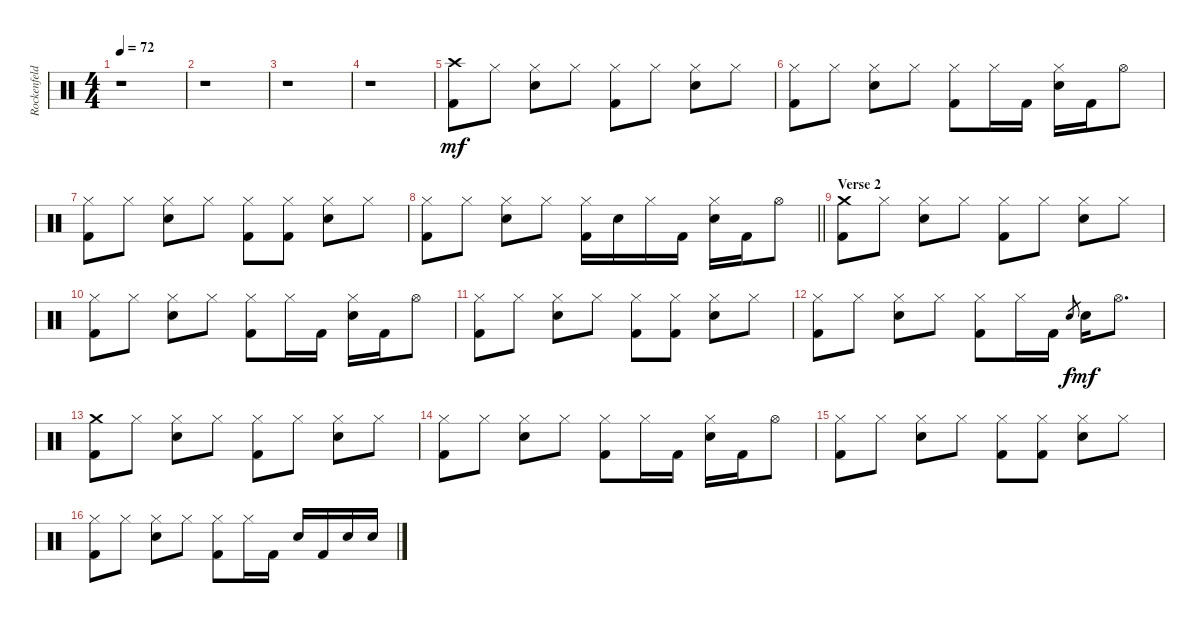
\track ("Rockenfeld" "Rockenfeld") {instrument percussion}
\staff {score}
\articulation defaults
\ts (4 4)
\tempo 72
\clef neutral
\ks c
r.1{dy mf} |
r.1 |
r.1 |
r.1 |
("Crash high (hit)" "Kick (hit) 2").8 "Hi-Hat (closed)".8 ("Hi-Hat (closed)" "Electric Snare (hit)").8 "Hi-Hat (closed)".8 ("Hi-Hat (closed)" "Kick (hit) 2").8 "Hi-Hat (closed)".8 ("Hi-Hat (closed)" "Electric Snare (hit)").8 "Hi-Hat (closed)".8 |
("Hi-Hat (closed)" "Kick (hit) 2").8 "Hi-Hat (closed)".8 ("Hi-Hat (closed)" "Electric Snare (hit)").8 "Hi-Hat (closed)".8 ("Hi-Hat (closed)" "Kick (hit) 2").8 "Hi-Hat (closed)".16 "Kick (hit) 2".16 ("Hi-Hat (closed)" "Electric Snare (hit)").16 "Kick (hit) 2".16 "Hi-Hat (open)".8 |
("Hi-Hat (closed)" "Kick (hit) 2").8 "Hi-Hat (closed)".8 ("Hi-Hat (closed)" "Electric Snare (hit)").8 "Hi-Hat (closed)".8 ("Hi-Hat (closed)" "Kick (hit) 2").8 ("Hi-Hat (closed)" "Kick (hit) 2").8 ("Hi-Hat (closed)" "Electric Snare (hit)").8 "Hi-Hat (closed)".8 |
\barLineRight lightlight
("Hi-Hat (closed)" "Kick (hit) 2").8 "Hi-Hat (closed)".8 ("Hi-Hat (closed)" "Electric Snare (hit)").8 "Hi-Hat (closed)".8 ("Hi-Hat (closed)" "Kick (hit) 2").16 "Electric Snare (hit)".16 "Hi-Hat (closed)".16 "Kick (hit) 2".16 ("Hi-Hat (closed)" "Electric Snare (hit)").16 "Kick (hit) 2".16 "Hi-Hat (open)".8 |
\section ("" "Verse 2")
("Crash medium (hit)" "Kick (hit) 2").8 "Hi-Hat (closed)".8 ("Hi-Hat (closed)" "Electric Snare (hit)").8 "Hi-Hat (closed)".8 ("Hi-Hat (closed)" "Kick (hit) 2").8 "Hi-Hat (closed)".8 ("Hi-Hat (closed)" "Electric Snare (hit)").8 "Hi-Hat (closed)".8 |
("Hi-Hat (closed)" "Kick (hit) 2").8 "Hi-Hat (closed)".8 ("Hi-Hat (closed)" "Electric Snare (hit)").8 "Hi-Hat (closed)".8 ("Hi-Hat (closed)" "Kick (hit) 2").8 "Hi-Hat (closed)".16 "Kick (hit) 2".16 ("Hi-Hat (closed)" "Electric Snare (hit)").16 "Kick (hit) 2".16 "Hi-Hat (open)".8 |
("Hi-Hat (closed)" "Kick (hit) 2").8 "Hi-Hat (closed)".8 ("Hi-Hat (closed)" "Electric Snare (hit)").8 "Hi-Hat (closed)".8 ("Hi-Hat (closed)" "Kick (hit) 2").8 ("Hi-Hat (closed)" "Kick (hit) 2").8 ("Hi-Hat (closed)" "Electric Snare (hit)").8 "Hi-Hat (closed)".8 |
("Hi-Hat (closed)" "Kick (hit) 2").8 "Hi-Hat (closed)".8 ("Hi-Hat (closed)" "Electric Snare (hit)").8 "Hi-Hat (closed)".8 ("Hi-Hat (closed)" "Kick (hit) 2").8 "Hi-Hat (closed)".16 "Kick (hit) 2".16 "Electric Snare (hit)".8{gr dy f} "Electric Snare (hit)".16{dy mf} "Hi-Hat (open)".8{d} |
("Crash medium (hit)" "Kick (hit) 2").8 "Hi-Hat (closed)".8 ("Hi-Hat (closed)" "Electric Snare (hit)").8 "Hi-Hat (closed)".8 ("Hi-Hat (closed)" "Kick (hit) 2").8 "Hi-Hat (closed)".8 ("Hi-Hat (closed)" "Electric Snare (hit)").8 "Hi-Hat (closed)".8 |
("Hi-Hat (closed)" "Kick (hit) 2").8 "Hi-Hat (closed)".8 ("Hi-Hat (closed)" "Electric Snare (hit)").8 "Hi-Hat (closed)".8 ("Hi-Hat (closed)" "Kick (hit) 2").8 "Hi-Hat (closed)".16 "Kick (hit) 2".16 ("Hi-Hat (closed)" "Electric Snare (hit)").16 "Kick (hit) 2".16 "Hi-Hat (open)".8 |
("Hi-Hat (closed)" "Kick (hit) 2").8 "Hi-Hat (closed)".8 ("Hi-Hat (closed)" "Electric Snare (hit)").8 "Hi-Hat (closed)".8 ("Hi-Hat (closed)" "Kick (hit) 2").8 ("Hi-Hat (closed)" "Kick (hit) 2").8 ("Hi-Hat (closed)" "Electric Snare (hit)").8 "Hi-Hat (closed)".8 |
("Hi-Hat (closed)" "Kick (hit) 2").8 "Hi-Hat (closed)".8 ("Hi-Hat (closed)" "Electric Snare (hit)").8 "Hi-Hat (closed)".8 ("Hi-Hat (closed)" "Kick (hit) 2").8 "Hi-Hat (closed)".16 "Kick (hit) 2".16 "Electric Snare (hit)".16 "Kick (hit) 2".16 "Electric Snare (hit)".16 "Electric Snare (hit)".16
